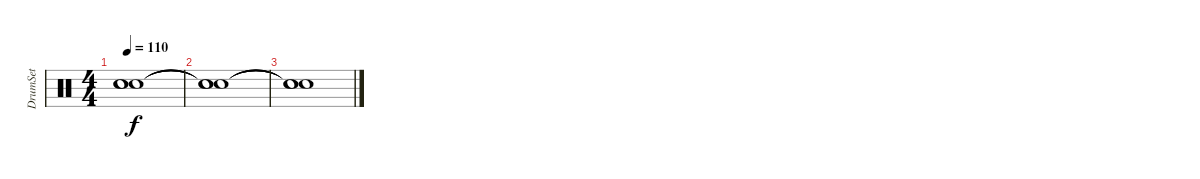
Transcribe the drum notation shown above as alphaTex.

\track ("DrumSet" "DrumSet") {instrument percussion}
\staff {score}
\articulation defaults
\ts (4 4)
\tempo 110
\clef neutral
\ks c
("Snare (hit)"{t} "Snare (hit)"{t} "Snare (hit)"{t}).1{dy f} |
("Snare (hit)"{t} "Snare (hit)"{t} "Snare (hit)"{t}).1 |
("Snare (hit)"{t} "Snare (hit)"{t} "Snare (hit)"{t}).1
